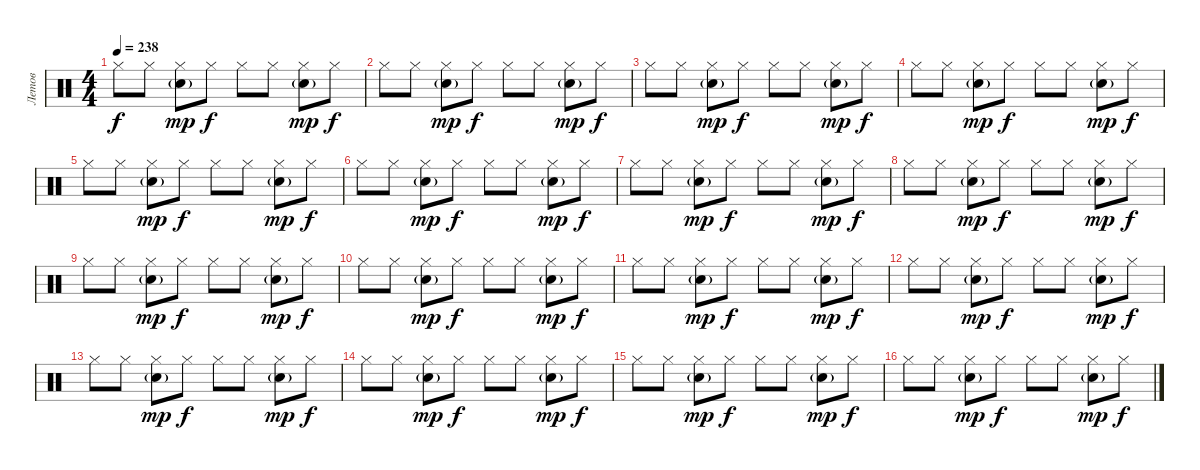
\track ("Летов" "Летов") {instrument percussion}
\staff {score}
\articulation defaults
\ts (4 4)
\tempo 238
\clef neutral
\ks c "Hi-Hat (closed)".8{dy f} "Hi-Hat (closed)".8
("Hi-Hat (closed)" "Snare (hit) 2"{g}).8{dy mp} "Hi-Hat (closed)".8{dy f} "Hi-Hat (closed)".8 "Hi-Hat (closed)".8 ("Hi-Hat (closed)" "Snare (hit) 2"{g}).8{dy mp} "Hi-Hat (closed)".8{dy f} |
"Hi-Hat (closed)".8 "Hi-Hat (closed)".8 ("Hi-Hat (closed)" "Snare (hit) 2"{g}).8{dy mp} "Hi-Hat (closed)".8{dy f} "Hi-Hat (closed)".8 "Hi-Hat (closed)".8 ("Hi-Hat (closed)" "Snare (hit) 2"{g}).8{dy mp} "Hi-Hat (closed)".8{dy f} |
"Hi-Hat (closed)".8 "Hi-Hat (closed)".8 ("Hi-Hat (closed)" "Snare (hit) 2"{g}).8{dy mp} "Hi-Hat (closed)".8{dy f} "Hi-Hat (closed)".8 "Hi-Hat (closed)".8 ("Hi-Hat (closed)" "Snare (hit) 2"{g}).8{dy mp} "Hi-Hat (closed)".8{dy f} |
"Hi-Hat (closed)".8 "Hi-Hat (closed)".8 ("Hi-Hat (closed)" "Snare (hit) 2"{g}).8{dy mp} "Hi-Hat (closed)".8{dy f} "Hi-Hat (closed)".8 "Hi-Hat (closed)".8 ("Hi-Hat (closed)" "Snare (hit) 2"{g}).8{dy mp} "Hi-Hat (closed)".8{dy f} |
"Hi-Hat (closed)".8 "Hi-Hat (closed)".8 ("Hi-Hat (closed)" "Snare (hit) 2"{g}).8{dy mp} "Hi-Hat (closed)".8{dy f} "Hi-Hat (closed)".8 "Hi-Hat (closed)".8 ("Hi-Hat (closed)" "Snare (hit) 2"{g}).8{dy mp} "Hi-Hat (closed)".8{dy f} |
"Hi-Hat (closed)".8 "Hi-Hat (closed)".8 ("Hi-Hat (closed)" "Snare (hit) 2"{g}).8{dy mp} "Hi-Hat (closed)".8{dy f} "Hi-Hat (closed)".8 "Hi-Hat (closed)".8 ("Hi-Hat (closed)" "Snare (hit) 2"{g}).8{dy mp} "Hi-Hat (closed)".8{dy f} |
"Hi-Hat (closed)".8 "Hi-Hat (closed)".8 ("Hi-Hat (closed)" "Snare (hit) 2"{g}).8{dy mp} "Hi-Hat (closed)".8{dy f} "Hi-Hat (closed)".8 "Hi-Hat (closed)".8 ("Hi-Hat (closed)" "Snare (hit) 2"{g}).8{dy mp} "Hi-Hat (closed)".8{dy f} |
"Hi-Hat (closed)".8 "Hi-Hat (closed)".8 ("Hi-Hat (closed)" "Snare (hit) 2"{g}).8{dy mp} "Hi-Hat (closed)".8{dy f} "Hi-Hat (closed)".8 "Hi-Hat (closed)".8 ("Hi-Hat (closed)" "Snare (hit) 2"{g}).8{dy mp} "Hi-Hat (closed)".8{dy f} |
"Hi-Hat (closed)".8 "Hi-Hat (closed)".8 ("Hi-Hat (closed)" "Snare (hit) 2"{g}).8{dy mp} "Hi-Hat (closed)".8{dy f} "Hi-Hat (closed)".8 "Hi-Hat (closed)".8 ("Hi-Hat (closed)" "Snare (hit) 2"{g}).8{dy mp} "Hi-Hat (closed)".8{dy f} |
"Hi-Hat (closed)".8 "Hi-Hat (closed)".8 ("Hi-Hat (closed)" "Snare (hit) 2"{g}).8{dy mp} "Hi-Hat (closed)".8{dy f} "Hi-Hat (closed)".8 "Hi-Hat (closed)".8 ("Hi-Hat (closed)" "Snare (hit) 2"{g}).8{dy mp} "Hi-Hat (closed)".8{dy f} |
"Hi-Hat (closed)".8 "Hi-Hat (closed)".8 ("Hi-Hat (closed)" "Snare (hit) 2"{g}).8{dy mp} "Hi-Hat (closed)".8{dy f} "Hi-Hat (closed)".8 "Hi-Hat (closed)".8 ("Hi-Hat (closed)" "Snare (hit) 2"{g}).8{dy mp} "Hi-Hat (closed)".8{dy f} |
"Hi-Hat (closed)".8 "Hi-Hat (closed)".8 ("Hi-Hat (closed)" "Snare (hit) 2"{g}).8{dy mp} "Hi-Hat (closed)".8{dy f} "Hi-Hat (closed)".8 "Hi-Hat (closed)".8 ("Hi-Hat (closed)" "Snare (hit) 2"{g}).8{dy mp} "Hi-Hat (closed)".8{dy f} |
"Hi-Hat (closed)".8 "Hi-Hat (closed)".8 ("Hi-Hat (closed)" "Snare (hit) 2"{g}).8{dy mp} "Hi-Hat (closed)".8{dy f} "Hi-Hat (closed)".8 "Hi-Hat (closed)".8 ("Hi-Hat (closed)" "Snare (hit) 2"{g}).8{dy mp} "Hi-Hat (closed)".8{dy f} |
"Hi-Hat (closed)".8 "Hi-Hat (closed)".8 ("Hi-Hat (closed)" "Snare (hit) 2"{g}).8{dy mp} "Hi-Hat (closed)".8{dy f} "Hi-Hat (closed)".8 "Hi-Hat (closed)".8 ("Hi-Hat (closed)" "Snare (hit) 2"{g}).8{dy mp} "Hi-Hat (closed)".8{dy f} |
"Hi-Hat (closed)".8 "Hi-Hat (closed)".8 ("Hi-Hat (closed)" "Snare (hit) 2"{g}).8{dy mp} "Hi-Hat (closed)".8{dy f} "Hi-Hat (closed)".8 "Hi-Hat (closed)".8 ("Hi-Hat (closed)" "Snare (hit) 2"{g}).8{dy mp} "Hi-Hat (closed)".8{dy f} |
"Hi-Hat (closed)".8 "Hi-Hat (closed)".8 ("Hi-Hat (closed)" "Snare (hit) 2"{g}).8{dy mp} "Hi-Hat (closed)".8{dy f} "Hi-Hat (closed)".8 "Hi-Hat (closed)".8 ("Hi-Hat (closed)" "Snare (hit) 2"{g}).8{dy mp} "Hi-Hat (closed)".8{dy f}
